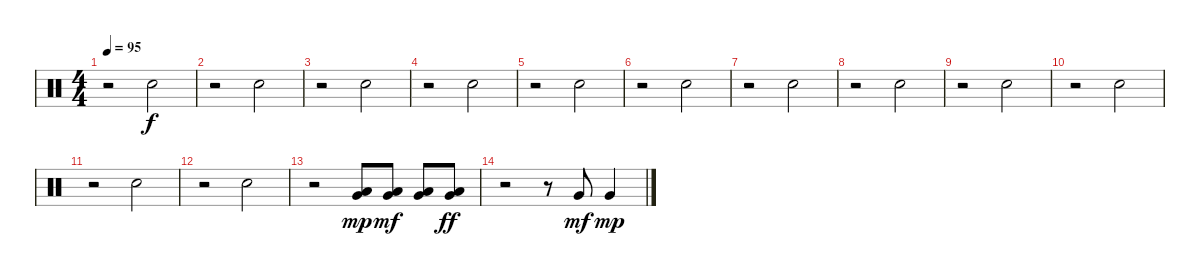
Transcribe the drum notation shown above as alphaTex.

\track "" {instrument percussion}
\staff {score}
\articulation defaults
\ts (4 4)
\tempo 95
\clef neutral
\ks c
r.2{dy f} "Electric Snare (hit)".2 |
r.2 "Electric Snare (hit)".2 |
r.2 "Electric Snare (hit)".2 |
r.2 "Electric Snare (hit)".2 |
r.2 "Electric Snare (hit)".2 |
r.2 "Electric Snare (hit)".2 |
r.2 "Electric Snare (hit)".2 |
r.2 "Electric Snare (hit)".2 |
r.2 "Electric Snare (hit)".2 |
r.2 "Electric Snare (hit)".2 |
r.2 "Electric Snare (hit)".2 |
r.2 "Electric Snare (hit)".2 |
r.2 ("Low Tom (hit)" "Very Low Tom (hit)").8{dy mp} ("Low Tom (hit)" "Very Low Tom (hit)").8{dy mf} ("Low Tom (hit)" "Very Low Tom (hit)").8 ("Low Tom (hit)" "Very Low Tom (hit)").8{dy ff} |
r.2 r.8 "Very Low Tom (hit)".8{dy mf} "Very Low Tom (hit)".4{dy mp}
